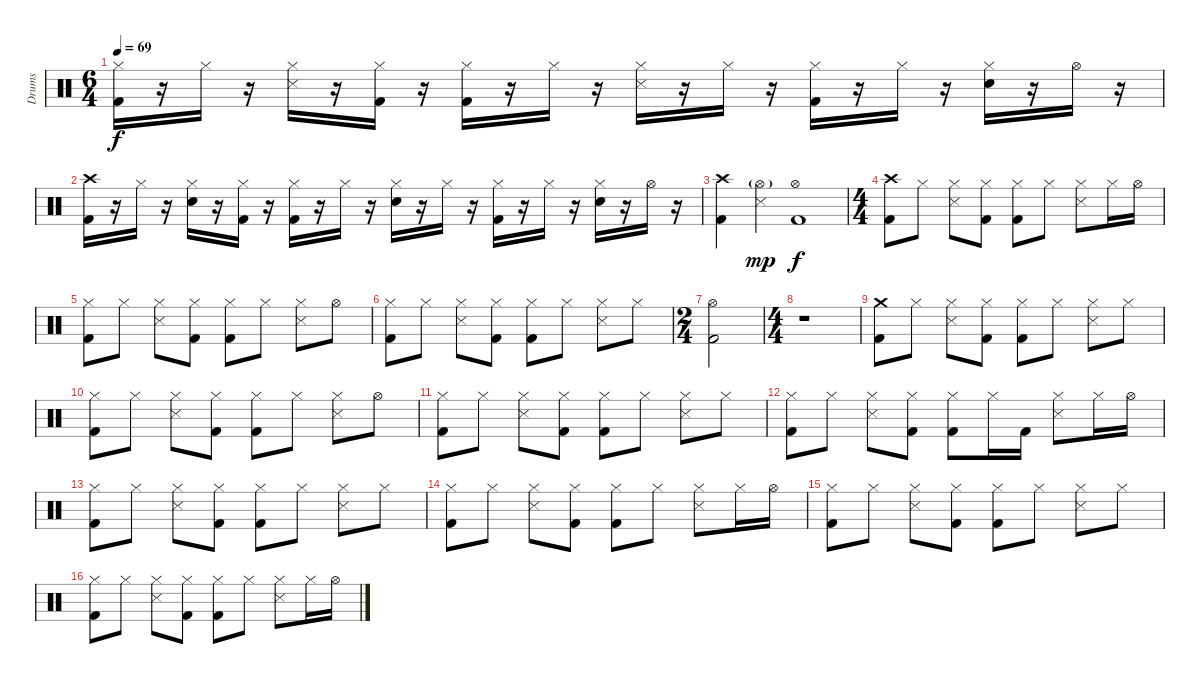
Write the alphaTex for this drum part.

\track ("Drums" "Drums") {instrument percussion}
\staff {score}
\articulation defaults
\ts (6 4)
\tempo 69
\clef neutral
\ks c
("Hi-Hat (closed)" "Kick (hit) 2").16{dy f} r.16 "Hi-Hat (closed)".16 r.16 ("Hi-Hat (closed)" "Snare (side stick) 3").16 r.16 ("Hi-Hat (closed)" "Kick (hit) 2").16 r.16 ("Hi-Hat (closed)" "Kick (hit) 2").16 r.16 "Hi-Hat (closed)".16 r.16 ("Hi-Hat (closed)" "Snare (side stick) 3").16 r.16 "Hi-Hat (closed)".16 r.16 ("Hi-Hat (closed)" "Kick (hit) 2").16 r.16 "Hi-Hat (closed)".16 r.16 ("Hi-Hat (closed)" "Snare (hit) 2").16 r.16 "Hi-Hat (open)".16 r.16 |
("Crash high (hit)" "Kick (hit) 2").16 r.16 "Hi-Hat (closed)".16 r.16 ("Hi-Hat (closed)" "Snare (hit) 2").16 r.16 ("Hi-Hat (closed)" "Kick (hit) 2").16 r.16 ("Hi-Hat (closed)" "Kick (hit) 2").16 r.16 "Hi-Hat (closed)".16 r.16 ("Hi-Hat (closed)" "Snare (hit) 2").16 r.16 "Hi-Hat (closed)".16 r.16 ("Hi-Hat (closed)" "Kick (hit) 2").16 r.16 "Hi-Hat (closed)".16 r.16 ("Hi-Hat (closed)" "Snare (hit) 2").16 r.16 "Hi-Hat (open)".16 r.16 |
("Crash high (hit)" "Kick (hit) 2").4 ("Hi-Hat (open)"{g} "Snare (side stick) 3").4{dy mp} ("Hi-Hat (open)" "Kick (hit) 2").1{dy f} |
\ts (4 4)
("Crash high (hit)" "Kick (hit) 2").8 "Hi-Hat (closed)".8 ("Hi-Hat (closed)" "Snare (side stick) 3").8 ("Hi-Hat (closed)" "Kick (hit) 2").8 ("Hi-Hat (closed)" "Kick (hit) 2").8 "Hi-Hat (closed)".8 ("Hi-Hat (closed)" "Snare (side stick) 3").8 "Hi-Hat (closed)".16 "Hi-Hat (open)".16 |
("Hi-Hat (closed)" "Kick (hit) 2").8 "Hi-Hat (closed)".8 ("Hi-Hat (closed)" "Snare (side stick) 3").8 ("Hi-Hat (closed)" "Kick (hit) 2").8 ("Hi-Hat (closed)" "Kick (hit) 2").8 "Hi-Hat (closed)".8 ("Hi-Hat (closed)" "Snare (side stick) 3").8 "Hi-Hat (open)".8 |
("Hi-Hat (closed)" "Kick (hit) 2").8 "Hi-Hat (closed)".8 ("Hi-Hat (closed)" "Snare (side stick) 3").8 ("Hi-Hat (closed)" "Kick (hit) 2").8 ("Hi-Hat (closed)" "Kick (hit) 2").8 "Hi-Hat (closed)".8 ("Hi-Hat (closed)" "Snare (side stick) 3").8 "Hi-Hat (closed)".8 |
\ts (2 4)
("Hi-Hat (open)" "Kick (hit) 2").2 |
\ts (4 4)
r.1 |
("Crash medium (hit)" "Kick (hit) 2").8 "Hi-Hat (closed)".8 ("Hi-Hat (closed)" "Snare (side stick) 3").8 ("Hi-Hat (closed)" "Kick (hit) 2").8 ("Hi-Hat (closed)" "Kick (hit) 2").8 "Hi-Hat (closed)".8 ("Hi-Hat (closed)" "Snare (side stick) 3").8 "Hi-Hat (closed)".8 |
("Hi-Hat (closed)" "Kick (hit) 2").8 "Hi-Hat (closed)".8 ("Hi-Hat (closed)" "Snare (side stick) 3").8 ("Hi-Hat (closed)" "Kick (hit) 2").8 ("Hi-Hat (closed)" "Kick (hit) 2").8 "Hi-Hat (closed)".8 ("Hi-Hat (closed)" "Snare (side stick) 3").8 "Hi-Hat (open)".8 |
("Hi-Hat (closed)" "Kick (hit) 2").8 "Hi-Hat (closed)".8 ("Hi-Hat (closed)" "Snare (side stick) 3").8 ("Hi-Hat (closed)" "Kick (hit) 2").8 ("Hi-Hat (closed)" "Kick (hit) 2").8 "Hi-Hat (closed)".8 ("Hi-Hat (closed)" "Snare (side stick) 3").8 "Hi-Hat (closed)".8 |
("Hi-Hat (closed)" "Kick (hit) 2").8 "Hi-Hat (closed)".8 ("Hi-Hat (closed)" "Snare (side stick) 3").8 ("Hi-Hat (closed)" "Kick (hit) 2").8 ("Hi-Hat (closed)" "Kick (hit) 2").8 "Hi-Hat (closed)".16 "Kick (hit) 2".16 ("Hi-Hat (closed)" "Snare (side stick) 3").8 "Hi-Hat (closed)".16 "Hi-Hat (open)".16 |
("Hi-Hat (closed)" "Kick (hit) 2").8 "Hi-Hat (closed)".8 ("Hi-Hat (closed)" "Snare (side stick) 3").8 ("Hi-Hat (closed)" "Kick (hit) 2").8 ("Hi-Hat (closed)" "Kick (hit) 2").8 "Hi-Hat (closed)".8 ("Hi-Hat (closed)" "Snare (side stick) 3").8 "Hi-Hat (closed)".8 |
("Hi-Hat (closed)" "Kick (hit) 2").8 "Hi-Hat (closed)".8 ("Hi-Hat (closed)" "Snare (side stick) 3").8 ("Hi-Hat (closed)" "Kick (hit) 2").8 ("Hi-Hat (closed)" "Kick (hit) 2").8 "Hi-Hat (closed)".8 ("Hi-Hat (closed)" "Snare (side stick) 3").8 "Hi-Hat (closed)".16 "Hi-Hat (open)".16 |
("Hi-Hat (closed)" "Kick (hit) 2").8 "Hi-Hat (closed)".8 ("Hi-Hat (closed)" "Snare (side stick) 3").8 ("Hi-Hat (closed)" "Kick (hit) 2").8 ("Hi-Hat (closed)" "Kick (hit) 2").8 "Hi-Hat (closed)".8 ("Hi-Hat (closed)" "Snare (side stick) 3").8 "Hi-Hat (closed)".8 |
("Hi-Hat (closed)" "Kick (hit) 2").8 "Hi-Hat (closed)".8 ("Hi-Hat (closed)" "Snare (side stick) 3").8 ("Hi-Hat (closed)" "Kick (hit) 2").8 ("Hi-Hat (closed)" "Kick (hit) 2").8 "Hi-Hat (closed)".8 ("Hi-Hat (closed)" "Snare (side stick) 3").8 "Hi-Hat (closed)".16 "Hi-Hat (open)".16
